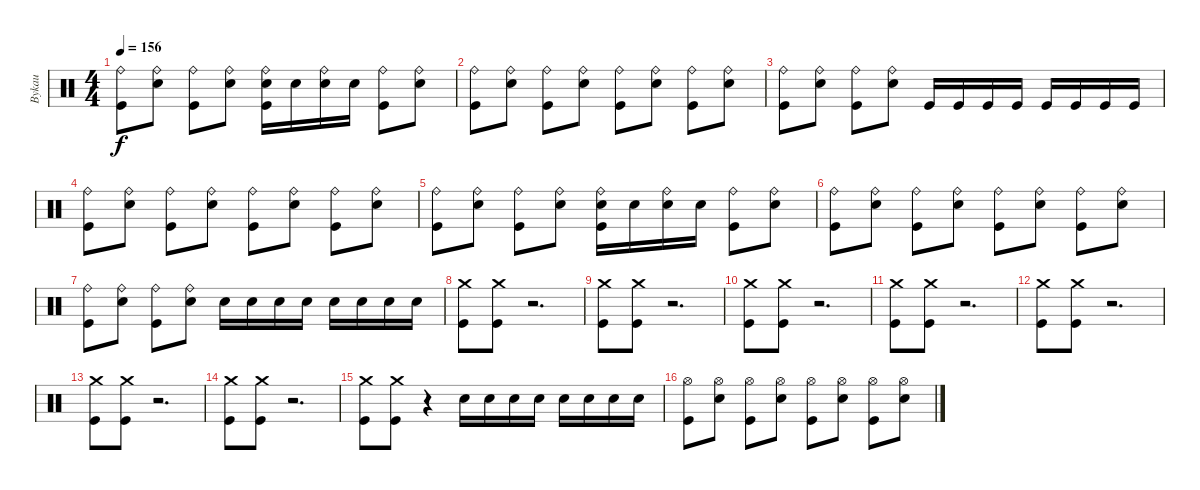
\track ("Bykau" "Bykau") {instrument percussion}
\staff {score}
\articulation defaults
\ts (4 4)
\tempo 156
\clef neutral
\ks c
("Ride (bell)" "Kick (hit)").8{dy f} ("Ride (bell)" "Electric Snare (hit)").8 ("Ride (bell)" "Kick (hit)").8 ("Ride (bell)" "Electric Snare (hit)").8 ("Ride (bell)" "Electric Snare (hit)" "Kick (hit)").16 "Electric Snare (hit)".16 ("Ride (bell)" "Electric Snare (hit)").16 "Electric Snare (hit)".16 ("Ride (bell)" "Kick (hit)").8 ("Ride (bell)" "Electric Snare (hit)").8 |
("Ride (bell)" "Kick (hit)").8 ("Ride (bell)" "Electric Snare (hit)").8 ("Ride (bell)" "Kick (hit)").8 ("Ride (bell)" "Electric Snare (hit)").8 ("Ride (bell)" "Kick (hit)").8 ("Ride (bell)" "Electric Snare (hit)").8 ("Ride (bell)" "Kick (hit)").8 ("Ride (bell)" "Electric Snare (hit)").8 |
("Ride (bell)" "Kick (hit)").8 ("Ride (bell)" "Electric Snare (hit)").8 ("Ride (bell)" "Kick (hit)").8 ("Ride (bell)" "Electric Snare (hit)").8 "Kick (hit)".16 "Kick (hit)".16 "Kick (hit)".16 "Kick (hit)".16 "Kick (hit)".16 "Kick (hit)".16 "Kick (hit)".16 "Kick (hit)".16 |
("Ride (bell)" "Kick (hit)").8 ("Ride (bell)" "Electric Snare (hit)").8 ("Ride (bell)" "Kick (hit)").8 ("Ride (bell)" "Electric Snare (hit)").8 ("Ride (bell)" "Kick (hit)").8 ("Ride (bell)" "Electric Snare (hit)").8 ("Ride (bell)" "Kick (hit)").8 ("Ride (bell)" "Electric Snare (hit)").8 |
("Ride (bell)" "Kick (hit)").8 ("Ride (bell)" "Electric Snare (hit)").8 ("Ride (bell)" "Kick (hit)").8 ("Ride (bell)" "Electric Snare (hit)").8 ("Ride (bell)" "Electric Snare (hit)" "Kick (hit)").16 "Electric Snare (hit)".16 ("Ride (bell)" "Electric Snare (hit)").16 "Electric Snare (hit)".16 ("Ride (bell)" "Kick (hit)").8 ("Ride (bell)" "Electric Snare (hit)").8 |
("Ride (bell)" "Kick (hit)").8 ("Ride (bell)" "Electric Snare (hit)").8 ("Ride (bell)" "Kick (hit)").8 ("Ride (bell)" "Electric Snare (hit)").8 ("Ride (bell)" "Kick (hit)").8 ("Ride (bell)" "Electric Snare (hit)").8 ("Ride (bell)" "Kick (hit)").8 ("Ride (bell)" "Electric Snare (hit)").8 |
("Ride (bell)" "Kick (hit)").8 ("Ride (bell)" "Electric Snare (hit)").8 ("Ride (bell)" "Kick (hit)").8 ("Ride (bell)" "Electric Snare (hit)").8 "Electric Snare (hit)".16 "Electric Snare (hit)".16 "Electric Snare (hit)".16 "Electric Snare (hit)".16 "Electric Snare (hit)".16 "Electric Snare (hit)".16 "Electric Snare (hit)".16 "Electric Snare (hit)".16 |
("Crash medium (hit)" "Kick (hit)").8 ("Crash medium (hit)" "Kick (hit)").8 r.2{d} |
("Crash medium (hit)" "Kick (hit)").8 ("Crash medium (hit)" "Kick (hit)").8 r.2{d} |
("Crash medium (hit)" "Kick (hit)").8 ("Crash medium (hit)" "Kick (hit)").8 r.2{d} |
("Crash medium (hit)" "Kick (hit)").8 ("Crash medium (hit)" "Kick (hit)").8 r.2{d} |
("Crash medium (hit)" "Kick (hit)").8 ("Crash medium (hit)" "Kick (hit)").8 r.2{d} |
("Crash medium (hit)" "Kick (hit)").8 ("Crash medium (hit)" "Kick (hit)").8 r.2{d} |
("Crash medium (hit)" "Kick (hit)").8 ("Crash medium (hit)" "Kick (hit)").8 r.2{d} |
("Crash medium (hit)" "Kick (hit)").8 ("Crash medium (hit)" "Kick (hit)").8 r.4 "Electric Snare (hit)".16 "Electric Snare (hit)".16 "Electric Snare (hit)".16 "Electric Snare (hit)".16 "Electric Snare (hit)".16 "Electric Snare (hit)".16 "Electric Snare (hit)".16 "Electric Snare (hit)".16 |
("Hi-Hat (open)" "Kick (hit)").8 ("Hi-Hat (open)" "Electric Snare (hit)").8 ("Hi-Hat (open)" "Kick (hit)").8 ("Hi-Hat (open)" "Electric Snare (hit)").8 ("Hi-Hat (open)" "Kick (hit)").8 ("Hi-Hat (open)" "Electric Snare (hit)").8 ("Hi-Hat (open)" "Kick (hit)").8 ("Hi-Hat (open)" "Electric Snare (hit)").8
